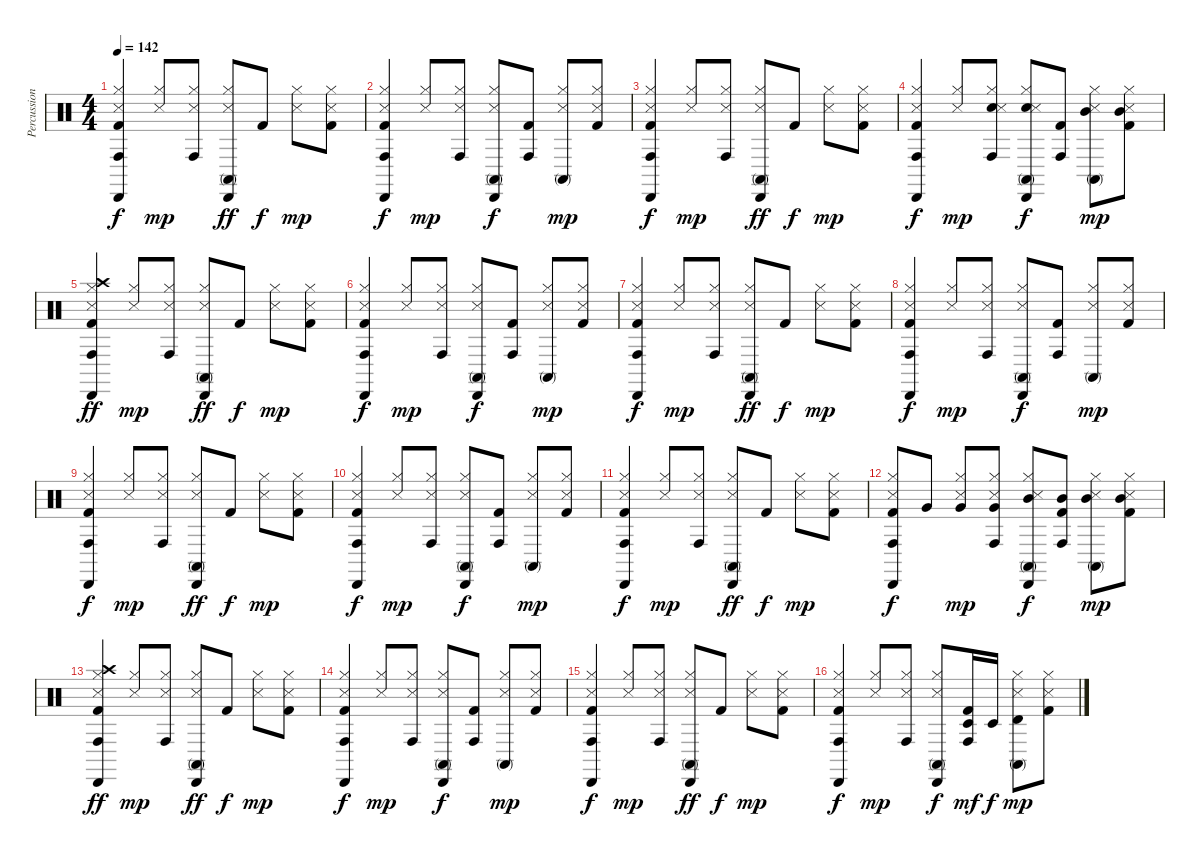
\track ("Percussion Booster" "Percussion") {instrument percussion}
\staff {score}
\articulation defaults
\ts (4 4)
\tempo 142
\clef neutral
\ks c
("Conga high (hit)" "Cabasa (hit)" "Hi-Hat (closed)" "Snare (side stick) 3" "Kick (hit) 2").4{dy f} ("Hi-Hat (closed)" "Snare (side stick) 3").8{dy mp} ("Conga high (hit)" "Hi-Hat (closed)" "Snare (side stick) 3").8 ("Conga high (mute)" "Cabasa (hit)" "Hi-Hat (closed)" "Snare (side stick) 3").8{dy ff} "Kick (hit) 2".8{dy f} ("Hi-Hat (closed)" "Snare (side stick) 3").8{dy mp} ("Hi-Hat (closed)" "Snare (side stick) 3" "Kick (hit) 2").8 |
("Conga high (hit)" "Cabasa (hit)" "Hi-Hat (closed)" "Snare (side stick) 3" "Kick (hit) 2").4{dy f} ("Hi-Hat (closed)" "Snare (side stick) 3").8{dy mp} ("Conga high (hit)" "Hi-Hat (closed)" "Snare (side stick) 3").8 ("Conga high (mute)" "Cabasa (hit)" "Hi-Hat (closed)" "Snare (side stick) 3").8{dy f} ("Conga high (hit)" "Kick (hit) 2").8 ("Conga high (mute)" "Hi-Hat (closed)" "Snare (side stick) 3").8{dy mp} ("Hi-Hat (closed)" "Snare (side stick) 3" "Kick (hit) 2").8 |
("Conga high (hit)" "Cabasa (hit)" "Hi-Hat (closed)" "Snare (side stick) 3" "Kick (hit) 2").4{dy f} ("Hi-Hat (closed)" "Snare (side stick) 3").8{dy mp} ("Conga high (hit)" "Hi-Hat (closed)" "Snare (side stick) 3").8 ("Conga high (mute)" "Cabasa (hit)" "Hi-Hat (closed)" "Snare (side stick) 3").8{dy ff} "Kick (hit) 2".8{dy f} ("Hi-Hat (closed)" "Snare (side stick) 3").8{dy mp} ("Hi-Hat (closed)" "Snare (side stick) 3" "Kick (hit) 2").8 |
("Conga high (hit)" "Cabasa (hit)" "Hi-Hat (closed)" "Snare (side stick) 3" "Kick (hit) 2").4{dy f} ("Hi-Hat (closed)" "Snare (side stick) 3").8{dy mp} ("Conga high (hit)" "Hi-Hat (closed)" "Snare (hit) 2" "Snare (side stick) 3").8 ("Conga high (mute)" "Cabasa (hit)" "Hi-Hat (closed)" "Snare (hit) 2" "Snare (side stick) 3").8{dy f} ("Conga high (hit)" "Kick (hit) 2").8 ("Conga high (mute)" "Mid Tom (hit)" "Hi-Hat (closed)" "Snare (side stick) 3").8{dy mp} ("Mid Tom (hit)" "Hi-Hat (closed)" "Snare (side stick) 3" "Kick (hit) 2").8 |
("Conga high (hit)" "Cabasa (hit)" "Crash high (hit)" "Hi-Hat (closed)" "Snare (side stick) 3" "Kick (hit) 2").4{dy ff} ("Hi-Hat (closed)" "Snare (side stick) 3").8{dy mp} ("Conga high (hit)" "Hi-Hat (closed)" "Snare (side stick) 3").8 ("Conga high (mute)" "Cabasa (hit)" "Hi-Hat (closed)" "Snare (side stick) 3").8{dy ff} "Kick (hit) 2".8{dy f} ("Hi-Hat (closed)" "Snare (side stick) 3").8{dy mp} ("Hi-Hat (closed)" "Snare (side stick) 3" "Kick (hit) 2").8 |
("Conga high (hit)" "Cabasa (hit)" "Hi-Hat (closed)" "Snare (side stick) 3" "Kick (hit) 2").4{dy f} ("Hi-Hat (closed)" "Snare (side stick) 3").8{dy mp} ("Conga high (hit)" "Hi-Hat (closed)" "Snare (side stick) 3").8 ("Conga high (mute)" "Cabasa (hit)" "Hi-Hat (closed)" "Snare (side stick) 3").8{dy f} ("Conga high (hit)" "Kick (hit) 2").8 ("Conga high (mute)" "Hi-Hat (closed)" "Snare (side stick) 3").8{dy mp} ("Hi-Hat (closed)" "Snare (side stick) 3" "Kick (hit) 2").8 |
("Conga high (hit)" "Cabasa (hit)" "Hi-Hat (closed)" "Snare (side stick) 3" "Kick (hit) 2").4{dy f} ("Hi-Hat (closed)" "Snare (side stick) 3").8{dy mp} ("Conga high (hit)" "Hi-Hat (closed)" "Snare (side stick) 3").8 ("Conga high (mute)" "Cabasa (hit)" "Hi-Hat (closed)" "Snare (side stick) 3").8{dy ff} "Kick (hit) 2".8{dy f} ("Hi-Hat (closed)" "Snare (side stick) 3").8{dy mp} ("Hi-Hat (closed)" "Snare (side stick) 3" "Kick (hit) 2").8 |
("Conga high (hit)" "Cabasa (hit)" "Hi-Hat (closed)" "Snare (side stick) 3" "Kick (hit) 2").4{dy f} ("Hi-Hat (closed)" "Snare (side stick) 3").8{dy mp} ("Conga high (hit)" "Hi-Hat (closed)" "Snare (side stick) 3").8 ("Conga high (mute)" "Cabasa (hit)" "Hi-Hat (closed)" "Snare (side stick) 3").8{dy f} ("Conga high (hit)" "Kick (hit) 2").8 ("Conga high (mute)" "Hi-Hat (closed)" "Snare (side stick) 3").8{dy mp} ("Hi-Hat (closed)" "Snare (side stick) 3" "Kick (hit) 2").8 |
("Conga high (hit)" "Cabasa (hit)" "Hi-Hat (closed)" "Snare (side stick) 3" "Kick (hit) 2").4{dy f} ("Hi-Hat (closed)" "Snare (side stick) 3").8{dy mp} ("Conga high (hit)" "Hi-Hat (closed)" "Snare (side stick) 3").8 ("Conga high (mute)" "Cabasa (hit)" "Hi-Hat (closed)" "Snare (side stick) 3").8{dy ff} "Kick (hit) 2".8{dy f} ("Hi-Hat (closed)" "Snare (side stick) 3").8{dy mp} ("Hi-Hat (closed)" "Snare (side stick) 3" "Kick (hit) 2").8 |
("Conga high (hit)" "Cabasa (hit)" "Hi-Hat (closed)" "Snare (side stick) 3" "Kick (hit) 2").4{dy f} ("Hi-Hat (closed)" "Snare (side stick) 3").8{dy mp} ("Conga high (hit)" "Hi-Hat (closed)" "Snare (side stick) 3").8 ("Conga high (mute)" "Cabasa (hit)" "Hi-Hat (closed)" "Snare (side stick) 3").8{dy f} ("Conga high (hit)" "Kick (hit) 2").8 ("Conga high (mute)" "Hi-Hat (closed)" "Snare (side stick) 3").8{dy mp} ("Hi-Hat (closed)" "Snare (side stick) 3" "Kick (hit) 2").8 |
("Conga high (hit)" "Cabasa (hit)" "Hi-Hat (closed)" "Snare (side stick) 3" "Kick (hit) 2").4{dy f} ("Hi-Hat (closed)" "Snare (side stick) 3").8{dy mp} ("Conga high (hit)" "Hi-Hat (closed)" "Snare (side stick) 3").8 ("Conga high (mute)" "Cabasa (hit)" "Hi-Hat (closed)" "Snare (side stick) 3").8{dy ff} "Kick (hit) 2".8{dy f} ("Hi-Hat (closed)" "Snare (side stick) 3").8{dy mp} ("Hi-Hat (closed)" "Snare (side stick) 3" "Kick (hit) 2").8 |
("Conga high (hit)" "Cabasa (hit)" "Hi-Hat (closed)" "Snare (side stick) 3" "Kick (hit) 2").8{dy f} "Very Low Tom (hit)".8 ("Very Low Tom (hit)" "Hi-Hat (closed)" "Snare (side stick) 3").8{dy mp} ("Conga high (hit)" "Very Low Tom (hit)" "Hi-Hat (closed)" "Snare (side stick) 3").8 ("Conga high (mute)" "Cabasa (hit)" "Mid Tom (hit)" "Hi-Hat (closed)" "Snare (side stick) 3").8{dy f} ("Conga high (hit)" "Mid Tom (hit)" "Kick (hit) 2").8 ("Conga high (mute)" "Mid Tom (hit)" "Hi-Hat (closed)" "Snare (side stick) 3").8{dy mp} ("Mid Tom (hit)" "Hi-Hat (closed)" "Snare (side stick) 3" "Kick (hit) 2").8 |
("Conga high (hit)" "Cabasa (hit)" "Crash high (hit)" "Hi-Hat (closed)" "Snare (side stick) 3" "Kick (hit) 2").4{dy ff} ("Hi-Hat (closed)" "Snare (side stick) 3").8{dy mp} ("Conga high (hit)" "Hi-Hat (closed)" "Snare (side stick) 3").8 ("Conga high (mute)" "Cabasa (hit)" "Hi-Hat (closed)" "Snare (side stick) 3").8{dy ff} "Kick (hit) 2".8{dy f} ("Hi-Hat (closed)" "Snare (side stick) 3").8{dy mp} ("Hi-Hat (closed)" "Snare (side stick) 3" "Kick (hit) 2").8 |
("Conga high (hit)" "Cabasa (hit)" "Hi-Hat (closed)" "Snare (side stick) 3" "Kick (hit) 2").4{dy f} ("Hi-Hat (closed)" "Snare (side stick) 3").8{dy mp} ("Conga high (hit)" "Hi-Hat (closed)" "Snare (side stick) 3").8 ("Conga high (mute)" "Cabasa (hit)" "Hi-Hat (closed)" "Snare (side stick) 3").8{dy f} ("Conga high (hit)" "Kick (hit) 2").8 ("Conga high (mute)" "Hi-Hat (closed)" "Snare (side stick) 3").8{dy mp} ("Hi-Hat (closed)" "Snare (side stick) 3" "Kick (hit) 2").8 |
("Conga high (hit)" "Cabasa (hit)" "Hi-Hat (closed)" "Snare (side stick) 3" "Kick (hit) 2").4{dy f} ("Hi-Hat (closed)" "Snare (side stick) 3").8{dy mp} ("Conga high (hit)" "Hi-Hat (closed)" "Snare (side stick) 3").8 ("Conga high (mute)" "Cabasa (hit)" "Hi-Hat (closed)" "Snare (side stick) 3").8{dy ff} "Kick (hit) 2".8{dy f} ("Hi-Hat (closed)" "Snare (side stick) 3").8{dy mp} ("Hi-Hat (closed)" "Snare (side stick) 3" "Kick (hit) 2").8 |
("Conga high (hit)" "Cabasa (hit)" "Hi-Hat (closed)" "Snare (side stick) 3" "Kick (hit) 2").4{dy f} ("Hi-Hat (closed)" "Snare (side stick) 3").8{dy mp} ("Conga high (hit)" "Hi-Hat (closed)" "Snare (side stick) 3").8 ("Conga high (mute)" "Cabasa (hit)" "Hi-Hat (closed)" "Snare (side stick) 3").8{dy f} ("Timbale low (hit)" "Conga high (hit)" "Kick (hit) 2").16{dy mf} "Timbale low (hit)".16{dy f} ("Timbale high (hit)" "Conga high (mute)" "Hi-Hat (closed)" "Snare (side stick) 3").8{dy mp} ("Hi-Hat (closed)" "Snare (side stick) 3" "Kick (hit) 2").8
